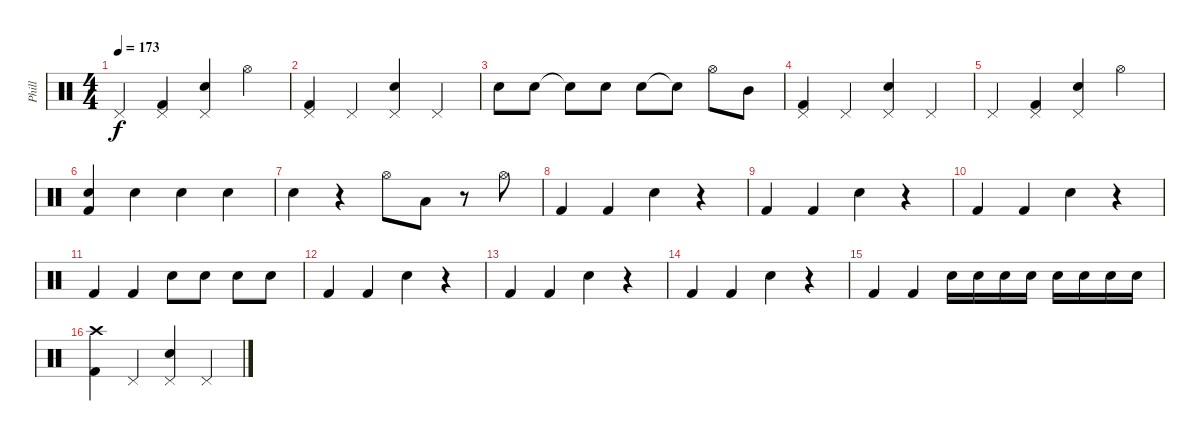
\track ("Phill" "Phill") {instrument percussion}
\staff {score}
\articulation defaults
\ts (4 4)
\tempo 173
\clef neutral
\ks c "Pedal Hi-Hat (hit)".4{dy f}
("Pedal Hi-Hat (hit)" "Kick (hit) 2").4 ("Pedal Hi-Hat (hit)" "Electric Snare (hit)").4 "Hi-Hat (open)".4 |
("Pedal Hi-Hat (hit)" "Kick (hit) 2").4 "Pedal Hi-Hat (hit)".4 ("Pedal Hi-Hat (hit)" "Electric Snare (hit)").4 "Pedal Hi-Hat (hit)".4 |
"Electric Snare (hit)".8 "Electric Snare (hit)".8 "Snare (hit)"{t}.8 "Electric Snare (hit)".8 "Electric Snare (hit)".8 "Snare (hit)"{t}.8 "Hi-Hat (open)".8 "Mid Tom (hit)".8 |
("Pedal Hi-Hat (hit)" "Kick (hit) 2").4 "Pedal Hi-Hat (hit)".4 ("Pedal Hi-Hat (hit)" "Electric Snare (hit)").4 "Pedal Hi-Hat (hit)".4 |
"Pedal Hi-Hat (hit)".4 ("Pedal Hi-Hat (hit)" "Kick (hit) 2").4 ("Pedal Hi-Hat (hit)" "Electric Snare (hit)").4 "Hi-Hat (open)".4 |
("Electric Snare (hit)" "Kick (hit) 2").4 "Electric Snare (hit)".4 "Electric Snare (hit)".4 "Electric Snare (hit)".4 |
"Electric Snare (hit)".4 r.4 "Hi-Hat (open)".8 "Low Tom (hit)".8 r.8 "Hi-Hat (open)".8 |
"Kick (hit) 2".4 "Kick (hit) 2".4 "Electric Snare (hit)".4 r.4 |
"Kick (hit) 2".4 "Kick (hit) 2".4 "Electric Snare (hit)".4 r.4 |
"Kick (hit) 2".4 "Kick (hit) 2".4 "Electric Snare (hit)".4 r.4 |
"Kick (hit) 2".4 "Kick (hit) 2".4 "Electric Snare (hit)".8 "Electric Snare (hit)".8 "Electric Snare (hit)".8 "Electric Snare (hit)".8 |
"Kick (hit) 2".4 "Kick (hit) 2".4 "Electric Snare (hit)".4 r.4 |
"Kick (hit) 2".4 "Kick (hit) 2".4 "Electric Snare (hit)".4 r.4 |
"Kick (hit) 2".4 "Kick (hit) 2".4 "Electric Snare (hit)".4 r.4 |
"Kick (hit) 2".4 "Kick (hit) 2".4 "Electric Snare (hit)".16 "Electric Snare (hit)".16 "Electric Snare (hit)".16 "Electric Snare (hit)".16 "Electric Snare (hit)".16 "Electric Snare (hit)".16 "Electric Snare (hit)".16 "Electric Snare (hit)".16 |
("Crash high (hit)" "Kick (hit) 2").4 "Pedal Hi-Hat (hit)".4 ("Pedal Hi-Hat (hit)" "Electric Snare (hit)").4 "Pedal Hi-Hat (hit)".4
